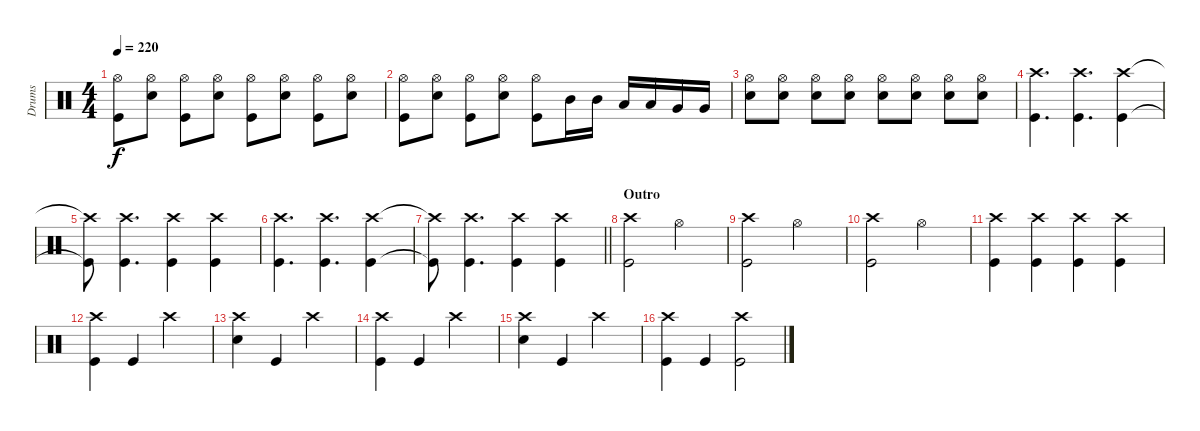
\track ("Drums" "Drums") {instrument percussion}
\staff {score}
\articulation defaults
\ts (4 4)
\tempo 220
\clef neutral
\ks c
("Hi-Hat (open)" "Kick (hit)").8{dy f} ("Hi-Hat (open)" "Snare (hit) 2").8 ("Hi-Hat (open)" "Kick (hit)").8 ("Hi-Hat (open)" "Snare (hit) 2").8 ("Hi-Hat (open)" "Kick (hit)").8 ("Hi-Hat (open)" "Snare (hit) 2").8 ("Hi-Hat (open)" "Kick (hit)").8 ("Hi-Hat (open)" "Snare (hit) 2").8 |
("Hi-Hat (open)" "Kick (hit)").8 ("Hi-Hat (open)" "Snare (hit) 2").8 ("Hi-Hat (open)" "Kick (hit)").8 ("Hi-Hat (open)" "Snare (hit) 2").8 ("Hi-Hat (open)" "Kick (hit)").8 "Mid Tom (hit)".16 "Mid Tom (hit)".16 "Low Tom (hit)".16 "Low Tom (hit)".16 "Very Low Tom (hit)".16 "Very Low Tom (hit)".16 |
("Hi-Hat (open)" "Snare (hit) 2").8 ("Hi-Hat (open)" "Snare (hit) 2").8 ("Hi-Hat (open)" "Snare (hit) 2").8 ("Hi-Hat (open)" "Snare (hit) 2").8 ("Hi-Hat (open)" "Snare (hit) 2").8 ("Hi-Hat (open)" "Snare (hit) 2").8 ("Hi-Hat (open)" "Snare (hit) 2").8 ("Hi-Hat (open)" "Snare (hit) 2").8 |
("Crash high (hit)" "Kick (hit)").4{d} ("Crash high (hit)" "Kick (hit)").4{d} ("Crash high (hit)" "Kick (hit)").4 |
("Crash high (hit)"{t} "Kick (hit)"{t}).8 ("Crash high (hit)" "Kick (hit)").4{d} ("Crash high (hit)" "Kick (hit)").4 ("Crash high (hit)" "Kick (hit)").4 |
("Crash high (hit)" "Kick (hit)").4{d} ("Crash high (hit)" "Kick (hit)").4{d} ("Crash high (hit)" "Kick (hit)").4 |
\barLineRight lightlight
("Crash high (hit)"{t} "Kick (hit)"{t}).8 ("Crash high (hit)" "Kick (hit)").4{d} ("Crash high (hit)" "Kick (hit)").4 ("Crash high (hit)" "Kick (hit)").4 |
\section ("" "Outro")
("Crash high (hit)" "Kick (hit)").2 "Hi-Hat (open)".2 |
("Crash high (hit)" "Kick (hit)").2 "Hi-Hat (open)".2 |
("Crash high (hit)" "Kick (hit)").2 "Hi-Hat (open)".2 |
("Crash high (hit)" "Kick (hit)").4 ("Crash high (hit)" "Kick (hit)").4 ("Crash high (hit)" "Kick (hit)").4 ("Crash high (hit)" "Kick (hit)").4 |
("Crash high (hit)" "Kick (hit)").4 "Kick (hit)".4 "Crash high (hit)".2 |
("Crash high (hit)" "Snare (hit) 2").4 "Kick (hit)".4 "Crash high (hit)".2 |
("Crash high (hit)" "Kick (hit)").4 "Kick (hit)".4 "Crash high (hit)".2 |
("Crash high (hit)" "Snare (hit) 2").4 "Kick (hit)".4 "Crash high (hit)".2 |
("Crash high (hit)" "Kick (hit)").4 "Kick (hit)".4 ("Crash high (hit)" "Kick (hit)").2
